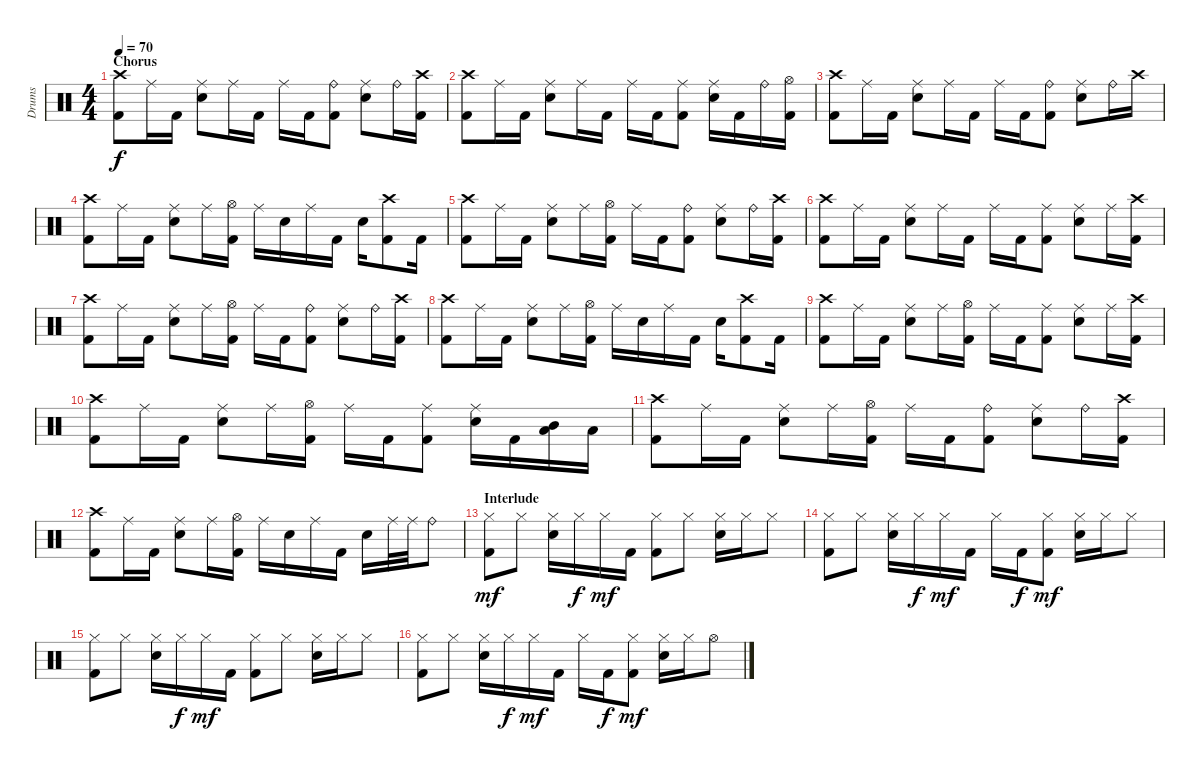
\track ("Drums" "Drums") {instrument percussion}
\staff {score}
\articulation defaults
\ts (4 4)
\section ("" "Chorus ")
\tempo 70
\clef neutral
\ks c
("Crash high (hit)" "Kick (hit) 2").8{dy f} "Ride (middle)".16 "Kick (hit) 2".16 ("Ride (middle)" "Electric Snare (hit)").8 "Ride (middle)".16 "Kick (hit) 2".16 "Ride (middle)".16 "Kick (hit) 2".16 ("Ride (bell)" "Kick (hit) 2").8 ("Ride (middle)" "Electric Snare (hit)").8 "Ride (bell)".16 ("Crash high (hit)" "Kick (hit) 2").16 |
("Crash high (hit)" "Kick (hit) 2").8 "Ride (middle)".16 "Kick (hit) 2".16 ("Ride (middle)" "Electric Snare (hit)").8 "Ride (middle)".16 "Kick (hit) 2".16 "Ride (middle)".16 "Kick (hit) 2".16 ("Ride (middle)" "Kick (hit) 2").8 ("Ride (middle)" "Electric Snare (hit)").16 "Kick (hit) 2".16 "Ride (bell)".16 ("Hi-Hat (open)" "Kick (hit) 2").16 |
("Crash high (hit)" "Kick (hit) 2").8 "Ride (middle)".16 "Kick (hit) 2".16 ("Ride (middle)" "Electric Snare (hit)").8 "Ride (middle)".16 "Kick (hit) 2".16 "Ride (middle)".16 "Kick (hit) 2".16 ("Ride (bell)" "Kick (hit) 2").8 ("Ride (middle)" "Electric Snare (hit)").8 "Ride (bell)".16 "Crash high (hit)".16 |
("Crash high (hit)" "Kick (hit) 2").8 "Ride (middle)".16 "Kick (hit) 2".16 ("Ride (middle)" "Electric Snare (hit)").8 "Ride (middle)".16 ("Hi-Hat (open)" "Kick (hit) 2").16 "Ride (middle)".16 "Electric Snare (hit)".16 "Ride (middle)".16 "Kick (hit) 2".16 "Electric Snare (hit)".16 ("Crash high (hit)" "Kick (hit) 2").8 "Kick (hit) 2".16 |
("Crash high (hit)" "Kick (hit) 2").8 "Ride (middle)".16 "Kick (hit) 2".16 ("Ride (middle)" "Electric Snare (hit)").8 "Ride (middle)".16 ("Hi-Hat (open)" "Kick (hit) 2").16 "Ride (middle)".16 "Kick (hit) 2".16 ("Ride (bell)" "Kick (hit) 2").8 ("Ride (middle)" "Electric Snare (hit)").8 "Ride (bell)".16 ("Crash high (hit)" "Kick (hit) 2").16 |
("Crash high (hit)" "Kick (hit) 2").8 "Ride (middle)".16 "Kick (hit) 2".16 ("Ride (middle)" "Electric Snare (hit)").8 "Ride (middle)".16 "Kick (hit) 2".16 "Ride (middle)".16 "Kick (hit) 2".16 ("Ride (middle)" "Kick (hit) 2").8 ("Ride (middle)" "Electric Snare (hit)").8 "Ride (middle)".16 ("Crash high (hit)" "Kick (hit) 2").16 |
("Crash high (hit)" "Kick (hit) 2").8 "Ride (middle)".16 "Kick (hit) 2".16 ("Ride (middle)" "Electric Snare (hit)").8 "Ride (middle)".16 ("Hi-Hat (open)" "Kick (hit) 2").16 "Ride (middle)".16 "Kick (hit) 2".16 ("Ride (bell)" "Kick (hit) 2").8 ("Ride (middle)" "Electric Snare (hit)").8 "Ride (bell)".16 ("Crash high (hit)" "Kick (hit) 2").16 |
("Crash high (hit)" "Kick (hit) 2").8 "Ride (middle)".16 "Kick (hit) 2".16 ("Ride (middle)" "Electric Snare (hit)").8 "Ride (middle)".16 ("Hi-Hat (open)" "Kick (hit) 2").16 "Ride (middle)".16 "Electric Snare (hit)".16 "Ride (middle)".16 "Kick (hit) 2".16 "Electric Snare (hit)".16 ("Crash high (hit)" "Kick (hit) 2").8 "Kick (hit) 2".16 |
("Crash high (hit)" "Kick (hit) 2").8 "Ride (middle)".16 "Kick (hit) 2".16 ("Ride (middle)" "Electric Snare (hit)").8 "Ride (middle)".16 ("Hi-Hat (open)" "Kick (hit) 2").16 "Ride (middle)".16 "Kick (hit) 2".16 ("Ride (middle)" "Kick (hit) 2").8 ("Ride (middle)" "Electric Snare (hit)").8 "Ride (middle)".16 ("Crash high (hit)" "Kick (hit) 2").16 |
("Crash high (hit)" "Kick (hit) 2").8 "Ride (middle)".16 "Kick (hit) 2".16 ("Ride (middle)" "Electric Snare (hit)").8 "Ride (middle)".16 ("Hi-Hat (open)" "Kick (hit) 2").16 "Ride (middle)".16 "Kick (hit) 2".16 ("Ride (middle)" "Kick (hit) 2").8 ("Ride (middle)" "Electric Snare (hit)").16 "Kick (hit) 2".16 ("Low Tom (hit)" "Mid Tom (hit)").16 "Low Tom (hit)".16 |
("Crash high (hit)" "Kick (hit) 2").8 "Ride (middle)".16 "Kick (hit) 2".16 ("Ride (middle)" "Electric Snare (hit)").8 "Ride (middle)".16 ("Hi-Hat (open)" "Kick (hit) 2").16 "Ride (middle)".16 "Kick (hit) 2".16 ("Ride (bell)" "Kick (hit) 2").8 ("Ride (middle)" "Electric Snare (hit)").8 "Ride (bell)".16 ("Crash high (hit)" "Kick (hit) 2").16 |
("Crash high (hit)" "Kick (hit) 2").8 "Ride (middle)".16 "Kick (hit) 2".16 ("Ride (middle)" "Electric Snare (hit)").8 "Ride (middle)".16 ("Hi-Hat (open)" "Kick (hit) 2").16 "Ride (middle)".16 "Electric Snare (hit)".16 "Ride (middle)".16 "Kick (hit) 2".16 "Electric Snare (hit)".16 "Ride (middle)".32 "Ride (middle)".32 "Ride (bell)".8 |
\section ("" "Interlude")
("Hi-Hat (closed)" "Kick (hit) 2").8{dy mf} "Hi-Hat (closed)".8 ("Hi-Hat (closed)" "Electric Snare (hit)").16 "Hi-Hat (closed)".16{dy f} "Hi-Hat (closed)".16{dy mf} "Kick (hit) 2".16 ("Hi-Hat (closed)" "Kick (hit) 2").8 "Hi-Hat (closed)".8 ("Hi-Hat (closed)" "Electric Snare (hit)").16 "Hi-Hat (closed)".16 "Hi-Hat (closed)".8 |
("Hi-Hat (closed)" "Kick (hit) 2").8 "Hi-Hat (closed)".8 ("Hi-Hat (closed)" "Electric Snare (hit)").16 "Hi-Hat (closed)".16{dy f} "Hi-Hat (closed)".16{dy mf} "Kick (hit) 2".16 "Hi-Hat (closed)".16 "Kick (hit) 2".16{dy f} ("Hi-Hat (closed)" "Kick (hit) 2").8{dy mf} ("Hi-Hat (closed)" "Electric Snare (hit)").16 "Hi-Hat (closed)".16 "Hi-Hat (closed)".8 |
("Hi-Hat (closed)" "Kick (hit) 2").8 "Hi-Hat (closed)".8 ("Hi-Hat (closed)" "Electric Snare (hit)").16 "Hi-Hat (closed)".16{dy f} "Hi-Hat (closed)".16{dy mf} "Kick (hit) 2".16 ("Hi-Hat (closed)" "Kick (hit) 2").8 "Hi-Hat (closed)".8 ("Hi-Hat (closed)" "Electric Snare (hit)").16 "Hi-Hat (closed)".16 "Hi-Hat (closed)".8 |
("Hi-Hat (closed)" "Kick (hit) 2").8 "Hi-Hat (closed)".8 ("Hi-Hat (closed)" "Electric Snare (hit)").16 "Hi-Hat (closed)".16{dy f} "Hi-Hat (closed)".16{dy mf} "Kick (hit) 2".16 "Hi-Hat (closed)".16 "Kick (hit) 2".16{dy f} ("Hi-Hat (closed)" "Kick (hit) 2").8{dy mf} ("Hi-Hat (closed)" "Electric Snare (hit)").16 "Hi-Hat (closed)".16 "Hi-Hat (open)".8
